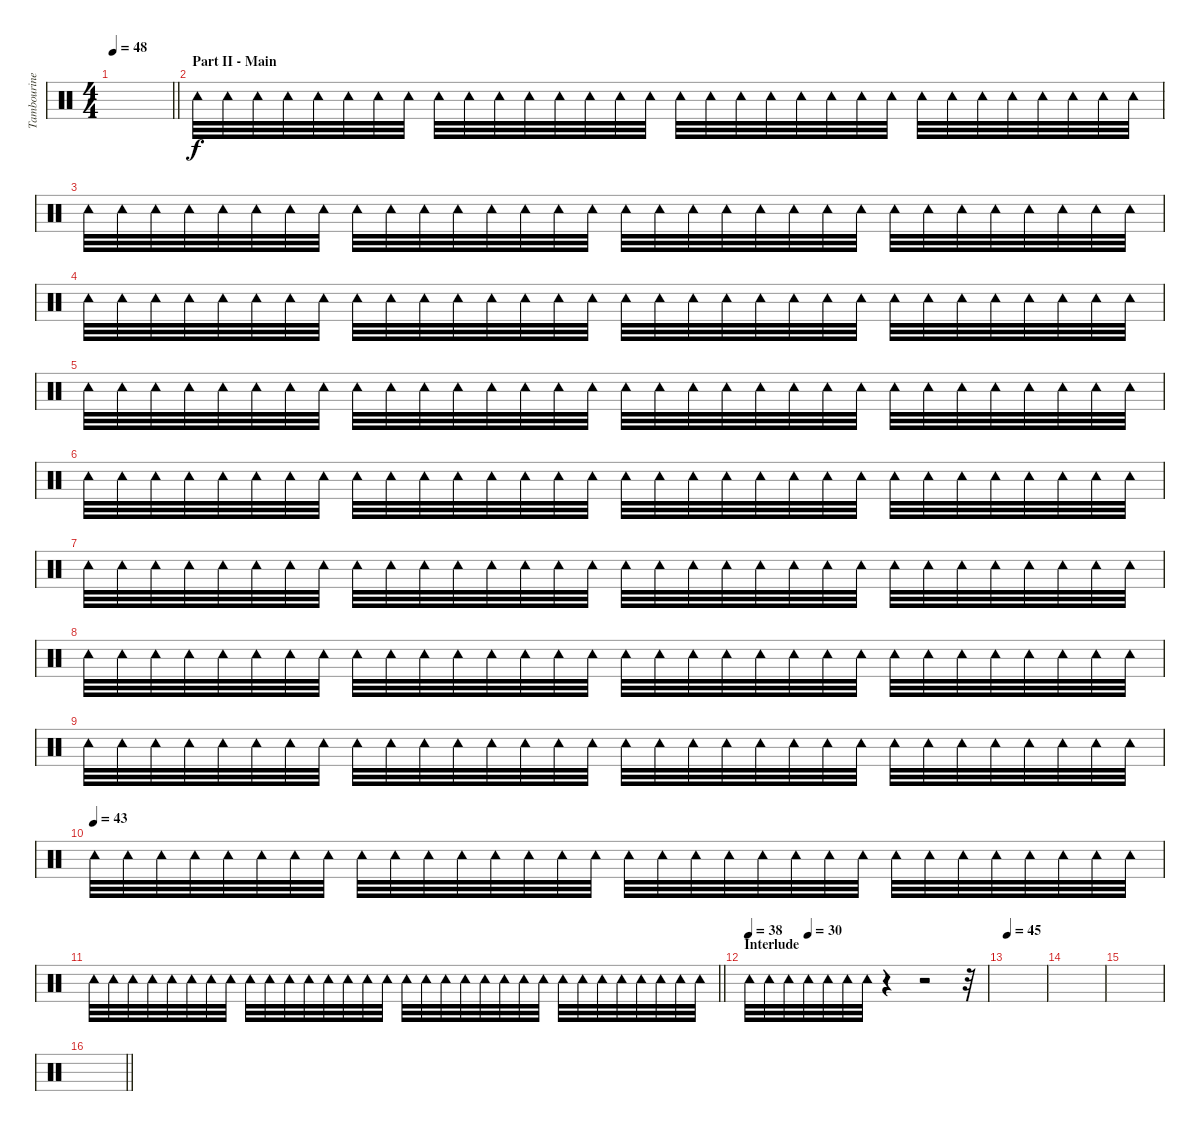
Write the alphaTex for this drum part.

\track ("Tambourine" "Tambourine") {instrument percussion}
\staff {score}
\articulation defaults
\ts (4 4)
\tempo 48
\clef neutral
\barLineRight lightlight
\ks c
|
\section ("" "Part II - Main")
"Tambourine (hit)".32 "Tambourine (hit)".32 "Tambourine (hit)".32 "Tambourine (hit)".32 "Tambourine (hit)".32 "Tambourine (hit)".32 "Tambourine (hit)".32 "Tambourine (hit)".32 "Tambourine (hit)".32 "Tambourine (hit)".32 "Tambourine (hit)".32 "Tambourine (hit)".32 "Tambourine (hit)".32 "Tambourine (hit)".32 "Tambourine (hit)".32 "Tambourine (hit)".32 "Tambourine (hit)".32 "Tambourine (hit)".32 "Tambourine (hit)".32 "Tambourine (hit)".32 "Tambourine (hit)".32 "Tambourine (hit)".32 "Tambourine (hit)".32 "Tambourine (hit)".32 "Tambourine (hit)".32 "Tambourine (hit)".32 "Tambourine (hit)".32 "Tambourine (hit)".32 "Tambourine (hit)".32 "Tambourine (hit)".32 "Tambourine (hit)".32 "Tambourine (hit)".32 |
"Tambourine (hit)".32 "Tambourine (hit)".32 "Tambourine (hit)".32 "Tambourine (hit)".32 "Tambourine (hit)".32 "Tambourine (hit)".32 "Tambourine (hit)".32 "Tambourine (hit)".32 "Tambourine (hit)".32 "Tambourine (hit)".32 "Tambourine (hit)".32 "Tambourine (hit)".32 "Tambourine (hit)".32 "Tambourine (hit)".32 "Tambourine (hit)".32 "Tambourine (hit)".32 "Tambourine (hit)".32 "Tambourine (hit)".32 "Tambourine (hit)".32 "Tambourine (hit)".32 "Tambourine (hit)".32 "Tambourine (hit)".32 "Tambourine (hit)".32 "Tambourine (hit)".32 "Tambourine (hit)".32 "Tambourine (hit)".32 "Tambourine (hit)".32 "Tambourine (hit)".32 "Tambourine (hit)".32 "Tambourine (hit)".32 "Tambourine (hit)".32 "Tambourine (hit)".32 |
"Tambourine (hit)".32 "Tambourine (hit)".32 "Tambourine (hit)".32 "Tambourine (hit)".32 "Tambourine (hit)".32 "Tambourine (hit)".32 "Tambourine (hit)".32 "Tambourine (hit)".32 "Tambourine (hit)".32 "Tambourine (hit)".32 "Tambourine (hit)".32 "Tambourine (hit)".32 "Tambourine (hit)".32 "Tambourine (hit)".32 "Tambourine (hit)".32 "Tambourine (hit)".32 "Tambourine (hit)".32 "Tambourine (hit)".32 "Tambourine (hit)".32 "Tambourine (hit)".32 "Tambourine (hit)".32 "Tambourine (hit)".32 "Tambourine (hit)".32 "Tambourine (hit)".32 "Tambourine (hit)".32 "Tambourine (hit)".32 "Tambourine (hit)".32 "Tambourine (hit)".32 "Tambourine (hit)".32 "Tambourine (hit)".32 "Tambourine (hit)".32 "Tambourine (hit)".32 |
"Tambourine (hit)".32 "Tambourine (hit)".32 "Tambourine (hit)".32 "Tambourine (hit)".32 "Tambourine (hit)".32 "Tambourine (hit)".32 "Tambourine (hit)".32 "Tambourine (hit)".32 "Tambourine (hit)".32 "Tambourine (hit)".32 "Tambourine (hit)".32 "Tambourine (hit)".32 "Tambourine (hit)".32 "Tambourine (hit)".32 "Tambourine (hit)".32 "Tambourine (hit)".32 "Tambourine (hit)".32 "Tambourine (hit)".32 "Tambourine (hit)".32 "Tambourine (hit)".32 "Tambourine (hit)".32 "Tambourine (hit)".32 "Tambourine (hit)".32 "Tambourine (hit)".32 "Tambourine (hit)".32 "Tambourine (hit)".32 "Tambourine (hit)".32 "Tambourine (hit)".32 "Tambourine (hit)".32 "Tambourine (hit)".32 "Tambourine (hit)".32 "Tambourine (hit)".32 |
"Tambourine (hit)".32 "Tambourine (hit)".32 "Tambourine (hit)".32 "Tambourine (hit)".32 "Tambourine (hit)".32 "Tambourine (hit)".32 "Tambourine (hit)".32 "Tambourine (hit)".32 "Tambourine (hit)".32 "Tambourine (hit)".32 "Tambourine (hit)".32 "Tambourine (hit)".32 "Tambourine (hit)".32 "Tambourine (hit)".32 "Tambourine (hit)".32 "Tambourine (hit)".32 "Tambourine (hit)".32 "Tambourine (hit)".32 "Tambourine (hit)".32 "Tambourine (hit)".32 "Tambourine (hit)".32 "Tambourine (hit)".32 "Tambourine (hit)".32 "Tambourine (hit)".32 "Tambourine (hit)".32 "Tambourine (hit)".32 "Tambourine (hit)".32 "Tambourine (hit)".32 "Tambourine (hit)".32 "Tambourine (hit)".32 "Tambourine (hit)".32 "Tambourine (hit)".32 |
"Tambourine (hit)".32 "Tambourine (hit)".32 "Tambourine (hit)".32 "Tambourine (hit)".32 "Tambourine (hit)".32 "Tambourine (hit)".32 "Tambourine (hit)".32 "Tambourine (hit)".32 "Tambourine (hit)".32 "Tambourine (hit)".32 "Tambourine (hit)".32 "Tambourine (hit)".32 "Tambourine (hit)".32 "Tambourine (hit)".32 "Tambourine (hit)".32 "Tambourine (hit)".32 "Tambourine (hit)".32 "Tambourine (hit)".32 "Tambourine (hit)".32 "Tambourine (hit)".32 "Tambourine (hit)".32 "Tambourine (hit)".32 "Tambourine (hit)".32 "Tambourine (hit)".32 "Tambourine (hit)".32 "Tambourine (hit)".32 "Tambourine (hit)".32 "Tambourine (hit)".32 "Tambourine (hit)".32 "Tambourine (hit)".32 "Tambourine (hit)".32 "Tambourine (hit)".32 |
"Tambourine (hit)".32 "Tambourine (hit)".32 "Tambourine (hit)".32 "Tambourine (hit)".32 "Tambourine (hit)".32 "Tambourine (hit)".32 "Tambourine (hit)".32 "Tambourine (hit)".32 "Tambourine (hit)".32 "Tambourine (hit)".32 "Tambourine (hit)".32 "Tambourine (hit)".32 "Tambourine (hit)".32 "Tambourine (hit)".32 "Tambourine (hit)".32 "Tambourine (hit)".32 "Tambourine (hit)".32 "Tambourine (hit)".32 "Tambourine (hit)".32 "Tambourine (hit)".32 "Tambourine (hit)".32 "Tambourine (hit)".32 "Tambourine (hit)".32 "Tambourine (hit)".32 "Tambourine (hit)".32 "Tambourine (hit)".32 "Tambourine (hit)".32 "Tambourine (hit)".32 "Tambourine (hit)".32 "Tambourine (hit)".32 "Tambourine (hit)".32 "Tambourine (hit)".32 |
"Tambourine (hit)".32 "Tambourine (hit)".32 "Tambourine (hit)".32 "Tambourine (hit)".32 "Tambourine (hit)".32 "Tambourine (hit)".32 "Tambourine (hit)".32 "Tambourine (hit)".32 "Tambourine (hit)".32 "Tambourine (hit)".32 "Tambourine (hit)".32 "Tambourine (hit)".32 "Tambourine (hit)".32 "Tambourine (hit)".32 "Tambourine (hit)".32 "Tambourine (hit)".32 "Tambourine (hit)".32 "Tambourine (hit)".32 "Tambourine (hit)".32 "Tambourine (hit)".32 "Tambourine (hit)".32 "Tambourine (hit)".32 "Tambourine (hit)".32 "Tambourine (hit)".32 "Tambourine (hit)".32 "Tambourine (hit)".32 "Tambourine (hit)".32 "Tambourine (hit)".32 "Tambourine (hit)".32 "Tambourine (hit)".32 "Tambourine (hit)".32 "Tambourine (hit)".32 |
\tempo (43)
"Tambourine (hit)".32 "Tambourine (hit)".32 "Tambourine (hit)".32 "Tambourine (hit)".32 "Tambourine (hit)".32 "Tambourine (hit)".32 "Tambourine (hit)".32 "Tambourine (hit)".32 "Tambourine (hit)".32 "Tambourine (hit)".32 "Tambourine (hit)".32 "Tambourine (hit)".32 "Tambourine (hit)".32 "Tambourine (hit)".32 "Tambourine (hit)".32 "Tambourine (hit)".32 "Tambourine (hit)".32 "Tambourine (hit)".32 "Tambourine (hit)".32 "Tambourine (hit)".32 "Tambourine (hit)".32 "Tambourine (hit)".32 "Tambourine (hit)".32 "Tambourine (hit)".32 "Tambourine (hit)".32 "Tambourine (hit)".32 "Tambourine (hit)".32 "Tambourine (hit)".32 "Tambourine (hit)".32 "Tambourine (hit)".32 "Tambourine (hit)".32 "Tambourine (hit)".32 |
\barLineRight lightlight "Tambourine (hit)".32 "Tambourine (hit)".32 "Tambourine (hit)".32 "Tambourine (hit)".32 "Tambourine (hit)".32 "Tambourine (hit)".32 "Tambourine (hit)".32 "Tambourine (hit)".32 "Tambourine (hit)".32 "Tambourine (hit)".32 "Tambourine (hit)".32 "Tambourine (hit)".32 "Tambourine (hit)".32 "Tambourine (hit)".32 "Tambourine (hit)".32 "Tambourine (hit)".32 "Tambourine (hit)".32 "Tambourine (hit)".32 "Tambourine (hit)".32 "Tambourine (hit)".32 "Tambourine (hit)".32 "Tambourine (hit)".32 "Tambourine (hit)".32 "Tambourine (hit)".32 "Tambourine (hit)".32 "Tambourine (hit)".32 "Tambourine (hit)".32 "Tambourine (hit)".32 "Tambourine (hit)".32 "Tambourine (hit)".32 "Tambourine (hit)".32 "Tambourine (hit)".32
|
\section ("" "Interlude")
\tempo 38
\tempo (30 0.25)
"Tambourine (hit)".32 "Tambourine (hit)".32 "Tambourine (hit)".32 "Tambourine (hit)".32 "Tambourine (hit)".32 "Tambourine (hit)".32 "Tambourine (hit)".32 r.4 r.2 r.32 |
\tempo 45
|
|
|
\barLineRight lightlight
